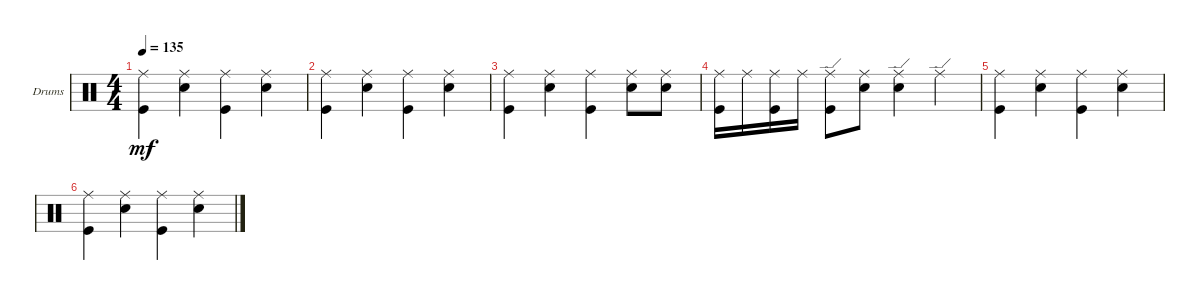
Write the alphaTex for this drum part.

\defaultSystemsLayout 4
\bracketExtendMode groupsimilarinstruments
\firstSystemTrackNameOrientation horizontal
\otherSystemsTrackNameOrientation horizontal
\track ("Drumkit" "Drums") {instrument percussion}
\staff {score}
\articulation defaults
\ts (4 4)
\tempo 135
\clef neutral
\ks c
("Ride (middle)" "Kick (hit)").4{dy mf} ("Ride (middle)" "Snare (hit) 2").4 ("Ride (middle)" "Kick (hit)").4 ("Ride (middle)" "Snare (hit) 2").4 |
("Ride (middle)" "Kick (hit)").4 ("Ride (middle)" "Snare (hit) 2").4 ("Ride (middle)" "Kick (hit)").4 ("Ride (middle)" "Snare (hit) 2").4 |
("Ride (middle)" "Kick (hit)").4 ("Ride (middle)" "Snare (hit) 2").4 ("Ride (middle)" "Kick (hit)").4 ("Ride (middle)" "Snare (hit) 2").8 ("Ride (middle)" "Snare (hit) 2").8 |
("Kick (hit)" "Ride (middle)").16 "Ride (middle)".16 ("Kick (hit)" "Ride (middle)").16 "Ride (middle)".16 ("Kick (hit)" "Ride (edge)").8 ("Ride (middle)" "Snare (hit) 2").8 ("Snare (hit) 2" "Ride (edge)").4 "Ride (edge)".4 |
("Ride (middle)" "Kick (hit)").4 ("Ride (middle)" "Snare (hit) 2").4 ("Ride (middle)" "Kick (hit)").4 ("Ride (middle)" "Snare (hit) 2").4 |
("Ride (middle)" "Kick (hit)").4 ("Ride (middle)" "Snare (hit) 2").4 ("Ride (middle)" "Kick (hit)").4 ("Ride (middle)" "Snare (hit) 2").4
